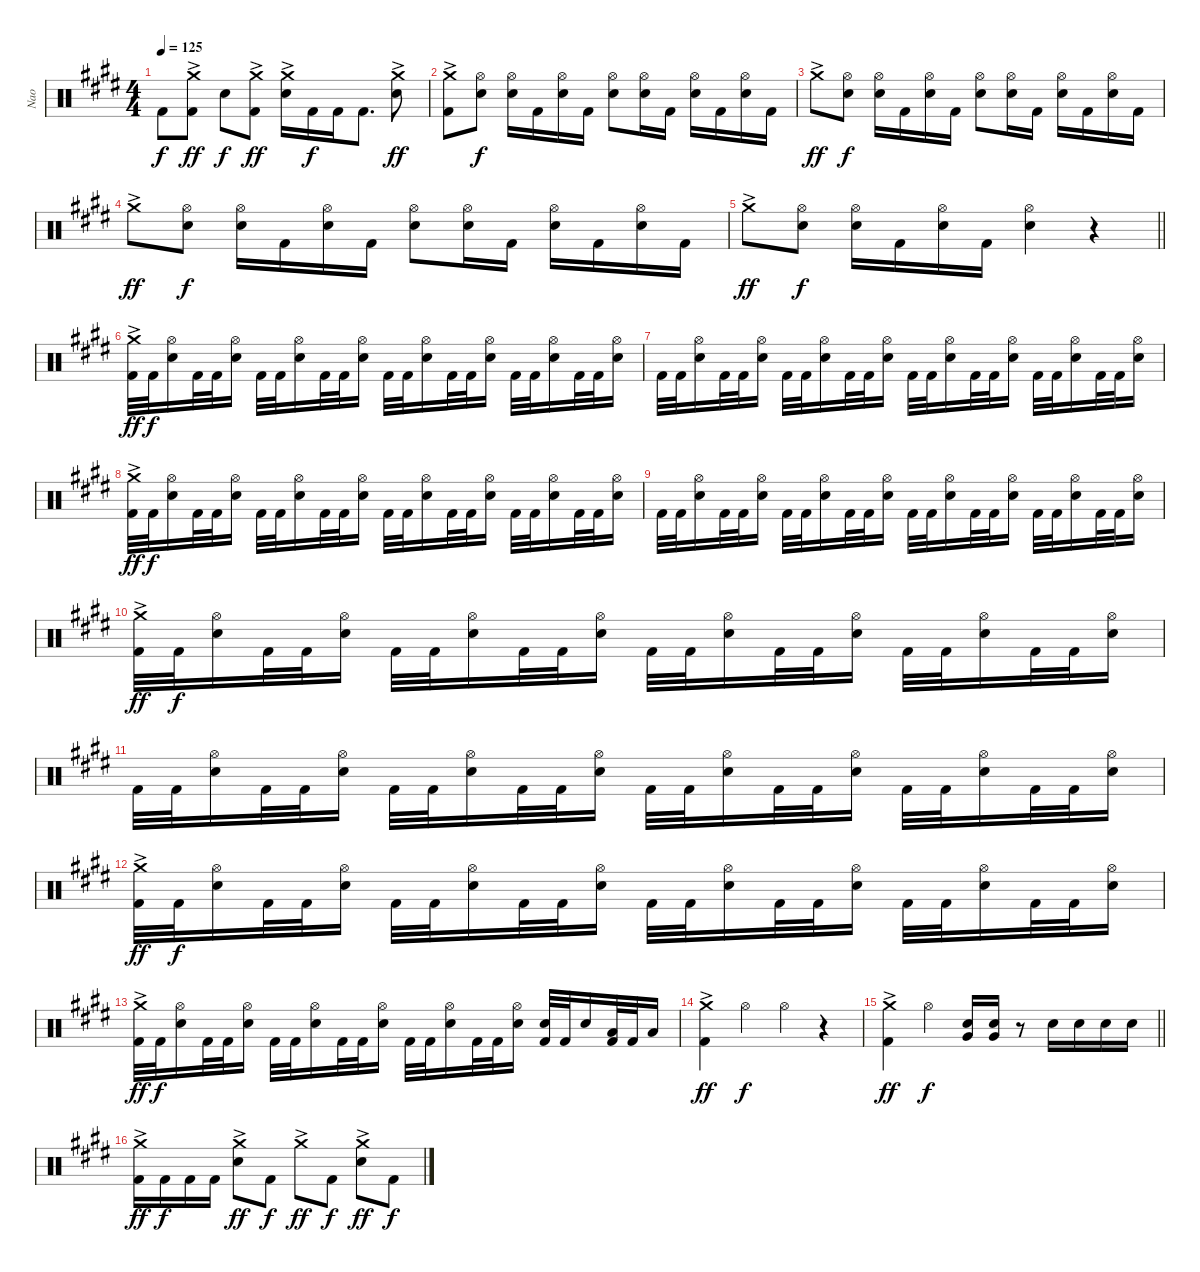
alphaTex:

\track ("Nao" "Nao") {instrument percussion}
\staff {score}
\articulation defaults
\ts (4 4)
\tempo 125
\clef neutral
\ks e "Kick (hit) 2".8{dy f}
("Crash medium (hit)"{ac} "Kick (hit) 2").8{dy ff} "Snare (hit) 2".8{dy f} ("Crash medium (hit)"{ac} "Kick (hit) 2").8{dy ff} ("Crash medium (hit)"{ac} "Snare (hit) 2").16 "Kick (hit) 2".16{dy f} "Kick (hit) 2".16 "Kick (hit) 2".8{d} ("Crash medium (hit)"{ac} "Snare (hit) 2").8{dy ff} |
("Crash medium (hit)"{ac} "Kick (hit) 2").8 ("Hi-Hat (open)" "Snare (hit) 2").8{dy f} ("Hi-Hat (open)" "Snare (hit) 2").16 "Kick (hit) 2".16 ("Hi-Hat (open)" "Snare (hit) 2").16 "Kick (hit) 2".16 ("Hi-Hat (open)" "Snare (hit) 2").8 ("Hi-Hat (open)" "Snare (hit) 2").16 "Kick (hit) 2".16 ("Hi-Hat (open)" "Snare (hit) 2").16 "Kick (hit) 2".16 ("Hi-Hat (open)" "Snare (hit) 2").16 "Kick (hit) 2".16 |
"Crash medium (hit)"{ac}.8{dy ff} ("Hi-Hat (open)" "Snare (hit) 2").8{dy f} ("Hi-Hat (open)" "Snare (hit) 2").16 "Kick (hit) 2".16 ("Hi-Hat (open)" "Snare (hit) 2").16 "Kick (hit) 2".16 ("Hi-Hat (open)" "Snare (hit) 2").8 ("Hi-Hat (open)" "Snare (hit) 2").16 "Kick (hit) 2".16 ("Hi-Hat (open)" "Snare (hit) 2").16 "Kick (hit) 2".16 ("Hi-Hat (open)" "Snare (hit) 2").16 "Kick (hit) 2".16 |
"Crash medium (hit)"{ac}.8{dy ff} ("Hi-Hat (open)" "Snare (hit) 2").8{dy f} ("Hi-Hat (open)" "Snare (hit) 2").16 "Kick (hit) 2".16 ("Hi-Hat (open)" "Snare (hit) 2").16 "Kick (hit) 2".16 ("Hi-Hat (open)" "Snare (hit) 2").8 ("Hi-Hat (open)" "Snare (hit) 2").16 "Kick (hit) 2".16 ("Hi-Hat (open)" "Snare (hit) 2").16 "Kick (hit) 2".16 ("Hi-Hat (open)" "Snare (hit) 2").16 "Kick (hit) 2".16 |
\barLineRight lightlight "Crash medium (hit)"{ac}.8{dy ff}
("Hi-Hat (open)" "Snare (hit) 2").8{dy f} ("Hi-Hat (open)" "Snare (hit) 2").16 "Kick (hit) 2".16 ("Hi-Hat (open)" "Snare (hit) 2").16 "Kick (hit) 2".16 ("Hi-Hat (open)" "Snare (hit) 2").4 r.4 |
("Crash medium (hit)"{ac} "Kick (hit) 2").32{dy ff} "Kick (hit) 2".32{dy f} ("Hi-Hat (open)" "Snare (hit) 2").16 "Kick (hit) 2".32 "Kick (hit) 2".32 ("Hi-Hat (open)" "Snare (hit) 2").16 "Kick (hit) 2".32 "Kick (hit) 2".32 ("Hi-Hat (open)" "Snare (hit) 2").16 "Kick (hit) 2".32 "Kick (hit) 2".32 ("Hi-Hat (open)" "Snare (hit) 2").16 "Kick (hit) 2".32 "Kick (hit) 2".32 ("Hi-Hat (open)" "Snare (hit) 2").16 "Kick (hit) 2".32 "Kick (hit) 2".32 ("Hi-Hat (open)" "Snare (hit) 2").16 "Kick (hit) 2".32 "Kick (hit) 2".32 ("Hi-Hat (open)" "Snare (hit) 2").16 "Kick (hit) 2".32 "Kick (hit) 2".32 ("Hi-Hat (open)" "Snare (hit) 2").16 |
"Kick (hit) 2".32 "Kick (hit) 2".32 ("Hi-Hat (open)" "Snare (hit) 2").16 "Kick (hit) 2".32 "Kick (hit) 2".32 ("Hi-Hat (open)" "Snare (hit) 2").16 "Kick (hit) 2".32 "Kick (hit) 2".32 ("Hi-Hat (open)" "Snare (hit) 2").16 "Kick (hit) 2".32 "Kick (hit) 2".32 ("Hi-Hat (open)" "Snare (hit) 2").16 "Kick (hit) 2".32 "Kick (hit) 2".32 ("Hi-Hat (open)" "Snare (hit) 2").16 "Kick (hit) 2".32 "Kick (hit) 2".32 ("Hi-Hat (open)" "Snare (hit) 2").16 "Kick (hit) 2".32 "Kick (hit) 2".32 ("Hi-Hat (open)" "Snare (hit) 2").16 "Kick (hit) 2".32 "Kick (hit) 2".32 ("Hi-Hat (open)" "Snare (hit) 2").16 |
("Crash medium (hit)"{ac} "Kick (hit) 2").32{dy ff} "Kick (hit) 2".32{dy f} ("Hi-Hat (open)" "Snare (hit) 2").16 "Kick (hit) 2".32 "Kick (hit) 2".32 ("Hi-Hat (open)" "Snare (hit) 2").16 "Kick (hit) 2".32 "Kick (hit) 2".32 ("Hi-Hat (open)" "Snare (hit) 2").16 "Kick (hit) 2".32 "Kick (hit) 2".32 ("Hi-Hat (open)" "Snare (hit) 2").16 "Kick (hit) 2".32 "Kick (hit) 2".32 ("Hi-Hat (open)" "Snare (hit) 2").16 "Kick (hit) 2".32 "Kick (hit) 2".32 ("Hi-Hat (open)" "Snare (hit) 2").16 "Kick (hit) 2".32 "Kick (hit) 2".32 ("Hi-Hat (open)" "Snare (hit) 2").16 "Kick (hit) 2".32 "Kick (hit) 2".32 ("Hi-Hat (open)" "Snare (hit) 2").16 |
"Kick (hit) 2".32 "Kick (hit) 2".32 ("Hi-Hat (open)" "Snare (hit) 2").16 "Kick (hit) 2".32 "Kick (hit) 2".32 ("Hi-Hat (open)" "Snare (hit) 2").16 "Kick (hit) 2".32 "Kick (hit) 2".32 ("Hi-Hat (open)" "Snare (hit) 2").16 "Kick (hit) 2".32 "Kick (hit) 2".32 ("Hi-Hat (open)" "Snare (hit) 2").16 "Kick (hit) 2".32 "Kick (hit) 2".32 ("Hi-Hat (open)" "Snare (hit) 2").16 "Kick (hit) 2".32 "Kick (hit) 2".32 ("Hi-Hat (open)" "Snare (hit) 2").16 "Kick (hit) 2".32 "Kick (hit) 2".32 ("Hi-Hat (open)" "Snare (hit) 2").16 "Kick (hit) 2".32 "Kick (hit) 2".32 ("Hi-Hat (open)" "Snare (hit) 2").16 |
("Crash medium (hit)"{ac} "Kick (hit) 2").32{dy ff} "Kick (hit) 2".32{dy f} ("Hi-Hat (open)" "Snare (hit) 2").16 "Kick (hit) 2".32 "Kick (hit) 2".32 ("Hi-Hat (open)" "Snare (hit) 2").16 "Kick (hit) 2".32 "Kick (hit) 2".32 ("Hi-Hat (open)" "Snare (hit) 2").16 "Kick (hit) 2".32 "Kick (hit) 2".32 ("Hi-Hat (open)" "Snare (hit) 2").16 "Kick (hit) 2".32 "Kick (hit) 2".32 ("Hi-Hat (open)" "Snare (hit) 2").16 "Kick (hit) 2".32 "Kick (hit) 2".32 ("Hi-Hat (open)" "Snare (hit) 2").16 "Kick (hit) 2".32 "Kick (hit) 2".32 ("Hi-Hat (open)" "Snare (hit) 2").16 "Kick (hit) 2".32 "Kick (hit) 2".32 ("Hi-Hat (open)" "Snare (hit) 2").16 |
"Kick (hit) 2".32 "Kick (hit) 2".32 ("Hi-Hat (open)" "Snare (hit) 2").16 "Kick (hit) 2".32 "Kick (hit) 2".32 ("Hi-Hat (open)" "Snare (hit) 2").16 "Kick (hit) 2".32 "Kick (hit) 2".32 ("Hi-Hat (open)" "Snare (hit) 2").16 "Kick (hit) 2".32 "Kick (hit) 2".32 ("Hi-Hat (open)" "Snare (hit) 2").16 "Kick (hit) 2".32 "Kick (hit) 2".32 ("Hi-Hat (open)" "Snare (hit) 2").16 "Kick (hit) 2".32 "Kick (hit) 2".32 ("Hi-Hat (open)" "Snare (hit) 2").16 "Kick (hit) 2".32 "Kick (hit) 2".32 ("Hi-Hat (open)" "Snare (hit) 2").16 "Kick (hit) 2".32 "Kick (hit) 2".32 ("Hi-Hat (open)" "Snare (hit) 2").16 |
("Crash medium (hit)"{ac} "Kick (hit) 2").32{dy ff} "Kick (hit) 2".32{dy f} ("Hi-Hat (open)" "Snare (hit) 2").16 "Kick (hit) 2".32 "Kick (hit) 2".32 ("Hi-Hat (open)" "Snare (hit) 2").16 "Kick (hit) 2".32 "Kick (hit) 2".32 ("Hi-Hat (open)" "Snare (hit) 2").16 "Kick (hit) 2".32 "Kick (hit) 2".32 ("Hi-Hat (open)" "Snare (hit) 2").16 "Kick (hit) 2".32 "Kick (hit) 2".32 ("Hi-Hat (open)" "Snare (hit) 2").16 "Kick (hit) 2".32 "Kick (hit) 2".32 ("Hi-Hat (open)" "Snare (hit) 2").16 "Kick (hit) 2".32 "Kick (hit) 2".32 ("Hi-Hat (open)" "Snare (hit) 2").16 "Kick (hit) 2".32 "Kick (hit) 2".32 ("Hi-Hat (open)" "Snare (hit) 2").16 |
("Crash medium (hit)"{ac} "Kick (hit) 2").32{dy ff} "Kick (hit) 2".32{dy f} ("Hi-Hat (open)" "Snare (hit) 2").16 "Kick (hit) 2".32 "Kick (hit) 2".32 ("Hi-Hat (open)" "Snare (hit) 2").16 "Kick (hit) 2".32 "Kick (hit) 2".32 ("Hi-Hat (open)" "Snare (hit) 2").16 "Kick (hit) 2".32 "Kick (hit) 2".32 ("Hi-Hat (open)" "Snare (hit) 2").16 "Kick (hit) 2".32 "Kick (hit) 2".32 ("Hi-Hat (open)" "Snare (hit) 2").16 "Kick (hit) 2".32 "Kick (hit) 2".32 ("Hi-Hat (open)" "Snare (hit) 2").16 ("Snare (hit) 2" "Kick (hit) 2").32 "Kick (hit) 2".32 "Snare (hit) 2".16 ("Low Tom (hit)" "Kick (hit) 2").32 "Kick (hit) 2".32 "Low Tom (hit)".16 |
("Crash medium (hit)"{ac} "Kick (hit) 2").4{dy ff} "Hi-Hat (open)".4{dy f} "Hi-Hat (open)".4 r.4 |
\barLineRight lightlight
("Crash medium (hit)"{ac} "Kick (hit) 2").4{dy ff} "Hi-Hat (open)".4{dy f} ("Snare (hit) 2" "Very Low Tom (hit)").16 ("Snare (hit) 2" "Very Low Tom (hit)").16 r.8 "Snare (hit) 2".16 "Snare (hit) 2".16 "Snare (hit) 2".16 "Snare (hit) 2".16 |
("Crash medium (hit)"{ac} "Kick (hit) 2").16{dy ff} "Kick (hit) 2".16{dy f} "Kick (hit) 2".16 "Kick (hit) 2".16 ("Crash medium (hit)"{ac} "Snare (hit) 2").8{dy ff} "Kick (hit) 2".8{dy f} "Crash medium (hit)"{ac}.8{dy ff} "Kick (hit) 2".8{dy f} ("Crash medium (hit)"{ac} "Snare (hit) 2").8{dy ff} "Kick (hit) 2".8{dy f}
